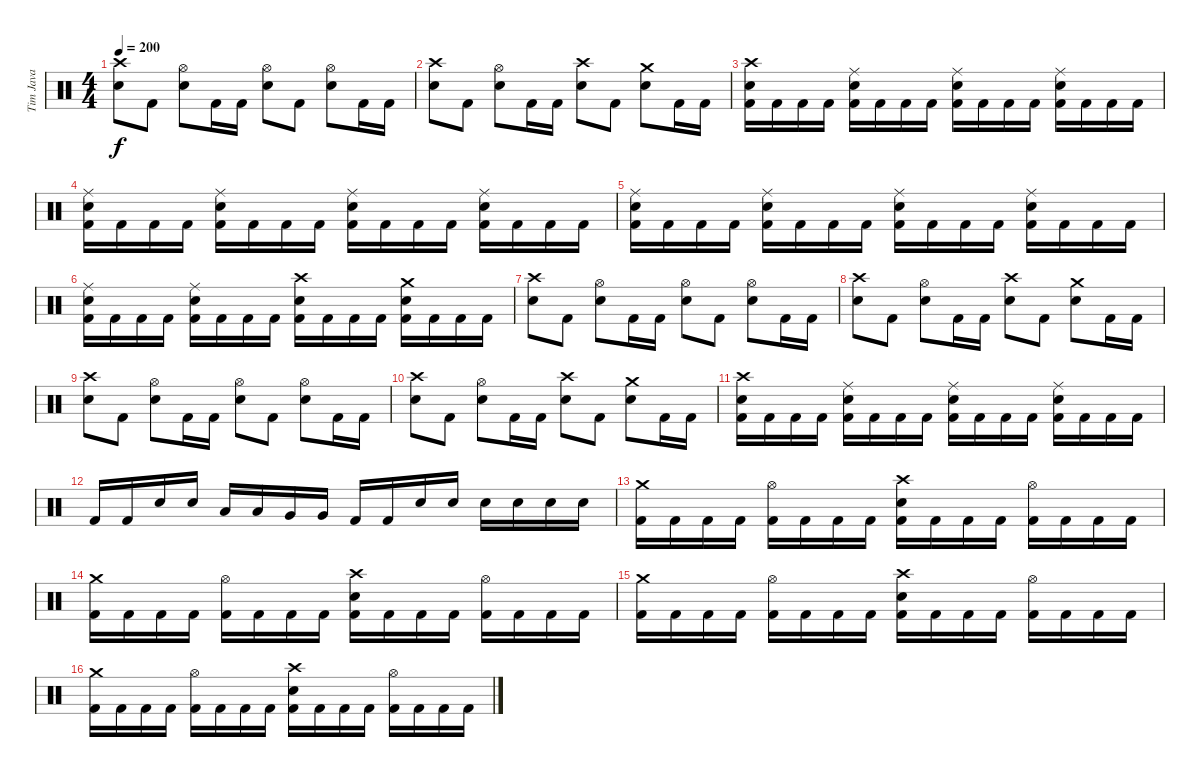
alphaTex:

\track ("Tim Java" "Tim Java") {instrument percussion}
\staff {score}
\articulation defaults
\ts (4 4)
\tempo 200
\clef neutral
\ks c
("Crash high (hit)" "Electric Snare (hit)").8{dy f} "Kick (hit) 2".8 ("Hi-Hat (open)" "Electric Snare (hit)").8 "Kick (hit) 2".16 "Kick (hit) 2".16 ("Hi-Hat (open)" "Electric Snare (hit)").8 "Kick (hit) 2".8 ("Hi-Hat (open)" "Electric Snare (hit)").8 "Kick (hit) 2".16 "Kick (hit) 2".16 |
("Crash high (hit)" "Electric Snare (hit)").8 "Kick (hit) 2".8 ("Hi-Hat (open)" "Electric Snare (hit)").8 "Kick (hit) 2".16 "Kick (hit) 2".16 ("Crash high (hit)" "Electric Snare (hit)").8 "Kick (hit) 2".8 ("Crash medium (hit)" "Electric Snare (hit)").8 "Kick (hit) 2".16 "Kick (hit) 2".16 |
("Crash high (hit)" "Electric Snare (hit)" "Kick (hit) 2").16 "Kick (hit) 2".16 "Kick (hit) 2".16 "Kick (hit) 2".16 ("Ride (middle)" "Electric Snare (hit)" "Kick (hit) 2").16 "Kick (hit) 2".16 "Kick (hit) 2".16 "Kick (hit) 2".16 ("Ride (middle)" "Electric Snare (hit)" "Kick (hit) 2").16 "Kick (hit) 2".16 "Kick (hit) 2".16 "Kick (hit) 2".16 ("Ride (middle)" "Electric Snare (hit)" "Kick (hit) 2").16 "Kick (hit) 2".16 "Kick (hit) 2".16 "Kick (hit) 2".16 |
("Ride (middle)" "Electric Snare (hit)" "Kick (hit) 2").16 "Kick (hit) 2".16 "Kick (hit) 2".16 "Kick (hit) 2".16 ("Ride (middle)" "Electric Snare (hit)" "Kick (hit) 2").16 "Kick (hit) 2".16 "Kick (hit) 2".16 "Kick (hit) 2".16 ("Ride (middle)" "Electric Snare (hit)" "Kick (hit) 2").16 "Kick (hit) 2".16 "Kick (hit) 2".16 "Kick (hit) 2".16 ("Ride (middle)" "Electric Snare (hit)" "Kick (hit) 2").16 "Kick (hit) 2".16 "Kick (hit) 2".16 "Kick (hit) 2".16 |
("Ride (middle)" "Electric Snare (hit)" "Kick (hit) 2").16 "Kick (hit) 2".16 "Kick (hit) 2".16 "Kick (hit) 2".16 ("Ride (middle)" "Electric Snare (hit)" "Kick (hit) 2").16 "Kick (hit) 2".16 "Kick (hit) 2".16 "Kick (hit) 2".16 ("Ride (middle)" "Electric Snare (hit)" "Kick (hit) 2").16 "Kick (hit) 2".16 "Kick (hit) 2".16 "Kick (hit) 2".16 ("Ride (middle)" "Electric Snare (hit)" "Kick (hit) 2").16 "Kick (hit) 2".16 "Kick (hit) 2".16 "Kick (hit) 2".16 |
("Ride (middle)" "Electric Snare (hit)" "Kick (hit) 2").16 "Kick (hit) 2".16 "Kick (hit) 2".16 "Kick (hit) 2".16 ("Ride (middle)" "Electric Snare (hit)" "Kick (hit) 2").16 "Kick (hit) 2".16 "Kick (hit) 2".16 "Kick (hit) 2".16 ("Crash high (hit)" "Electric Snare (hit)" "Kick (hit) 2").16 "Kick (hit) 2".16 "Kick (hit) 2".16 "Kick (hit) 2".16 ("Crash medium (hit)" "Electric Snare (hit)" "Kick (hit) 2").16 "Kick (hit) 2".16 "Kick (hit) 2".16 "Kick (hit) 2".16 |
("Crash high (hit)" "Electric Snare (hit)").8 "Kick (hit) 2".8 ("Hi-Hat (open)" "Electric Snare (hit)").8 "Kick (hit) 2".16 "Kick (hit) 2".16 ("Hi-Hat (open)" "Electric Snare (hit)").8 "Kick (hit) 2".8 ("Hi-Hat (open)" "Electric Snare (hit)").8 "Kick (hit) 2".16 "Kick (hit) 2".16 |
("Crash high (hit)" "Electric Snare (hit)").8 "Kick (hit) 2".8 ("Hi-Hat (open)" "Electric Snare (hit)").8 "Kick (hit) 2".16 "Kick (hit) 2".16 ("Crash high (hit)" "Electric Snare (hit)").8 "Kick (hit) 2".8 ("Crash medium (hit)" "Electric Snare (hit)").8 "Kick (hit) 2".16 "Kick (hit) 2".16 |
("Crash high (hit)" "Electric Snare (hit)").8 "Kick (hit) 2".8 ("Hi-Hat (open)" "Electric Snare (hit)").8 "Kick (hit) 2".16 "Kick (hit) 2".16 ("Hi-Hat (open)" "Electric Snare (hit)").8 "Kick (hit) 2".8 ("Hi-Hat (open)" "Electric Snare (hit)").8 "Kick (hit) 2".16 "Kick (hit) 2".16 |
("Crash high (hit)" "Electric Snare (hit)").8 "Kick (hit) 2".8 ("Hi-Hat (open)" "Electric Snare (hit)").8 "Kick (hit) 2".16 "Kick (hit) 2".16 ("Crash high (hit)" "Electric Snare (hit)").8 "Kick (hit) 2".8 ("Crash medium (hit)" "Electric Snare (hit)").8 "Kick (hit) 2".16 "Kick (hit) 2".16 |
("Crash high (hit)" "Electric Snare (hit)" "Kick (hit) 2").16 "Kick (hit) 2".16 "Kick (hit) 2".16 "Kick (hit) 2".16 ("Ride (middle)" "Electric Snare (hit)" "Kick (hit) 2").16 "Kick (hit) 2".16 "Kick (hit) 2".16 "Kick (hit) 2".16 ("Ride (middle)" "Electric Snare (hit)" "Kick (hit) 2").16 "Kick (hit) 2".16 "Kick (hit) 2".16 "Kick (hit) 2".16 ("Ride (middle)" "Electric Snare (hit)" "Kick (hit) 2").16 "Kick (hit) 2".16 "Kick (hit) 2".16 "Kick (hit) 2".16 |
"Kick (hit) 2".16 "Kick (hit) 2".16 "Electric Snare (hit)".16 "Electric Snare (hit)".16 "Low Tom (hit)".16 "Low Tom (hit)".16 "Very Low Tom (hit)".16 "Very Low Tom (hit)".16 "Kick (hit) 2".16 "Kick (hit) 2".16 "Electric Snare (hit)".16 "Electric Snare (hit)".16 "Electric Snare (hit)".16 "Electric Snare (hit)".16 "Electric Snare (hit)".16 "Electric Snare (hit)".16 |
("Crash medium (hit)" "Kick (hit) 2").16 "Kick (hit) 2".16 "Kick (hit) 2".16 "Kick (hit) 2".16 ("Hi-Hat (open)" "Kick (hit) 2").16 "Kick (hit) 2".16 "Kick (hit) 2".16 "Kick (hit) 2".16 ("Crash high (hit)" "Electric Snare (hit)" "Kick (hit) 2").16 "Kick (hit) 2".16 "Kick (hit) 2".16 "Kick (hit) 2".16 ("Hi-Hat (open)" "Kick (hit) 2").16 "Kick (hit) 2".16 "Kick (hit) 2".16 "Kick (hit) 2".16 |
("Crash medium (hit)" "Kick (hit) 2").16 "Kick (hit) 2".16 "Kick (hit) 2".16 "Kick (hit) 2".16 ("Hi-Hat (open)" "Kick (hit) 2").16 "Kick (hit) 2".16 "Kick (hit) 2".16 "Kick (hit) 2".16 ("Crash high (hit)" "Electric Snare (hit)" "Kick (hit) 2").16 "Kick (hit) 2".16 "Kick (hit) 2".16 "Kick (hit) 2".16 ("Hi-Hat (open)" "Kick (hit) 2").16 "Kick (hit) 2".16 "Kick (hit) 2".16 "Kick (hit) 2".16 |
("Crash medium (hit)" "Kick (hit) 2").16 "Kick (hit) 2".16 "Kick (hit) 2".16 "Kick (hit) 2".16 ("Hi-Hat (open)" "Kick (hit) 2").16 "Kick (hit) 2".16 "Kick (hit) 2".16 "Kick (hit) 2".16 ("Crash high (hit)" "Electric Snare (hit)" "Kick (hit) 2").16 "Kick (hit) 2".16 "Kick (hit) 2".16 "Kick (hit) 2".16 ("Hi-Hat (open)" "Kick (hit) 2").16 "Kick (hit) 2".16 "Kick (hit) 2".16 "Kick (hit) 2".16 |
("Crash medium (hit)" "Kick (hit) 2").16 "Kick (hit) 2".16 "Kick (hit) 2".16 "Kick (hit) 2".16 ("Hi-Hat (open)" "Kick (hit) 2").16 "Kick (hit) 2".16 "Kick (hit) 2".16 "Kick (hit) 2".16 ("Crash high (hit)" "Electric Snare (hit)" "Kick (hit) 2").16 "Kick (hit) 2".16 "Kick (hit) 2".16 "Kick (hit) 2".16 ("Hi-Hat (open)" "Kick (hit) 2").16 "Kick (hit) 2".16 "Kick (hit) 2".16 "Kick (hit) 2".16
